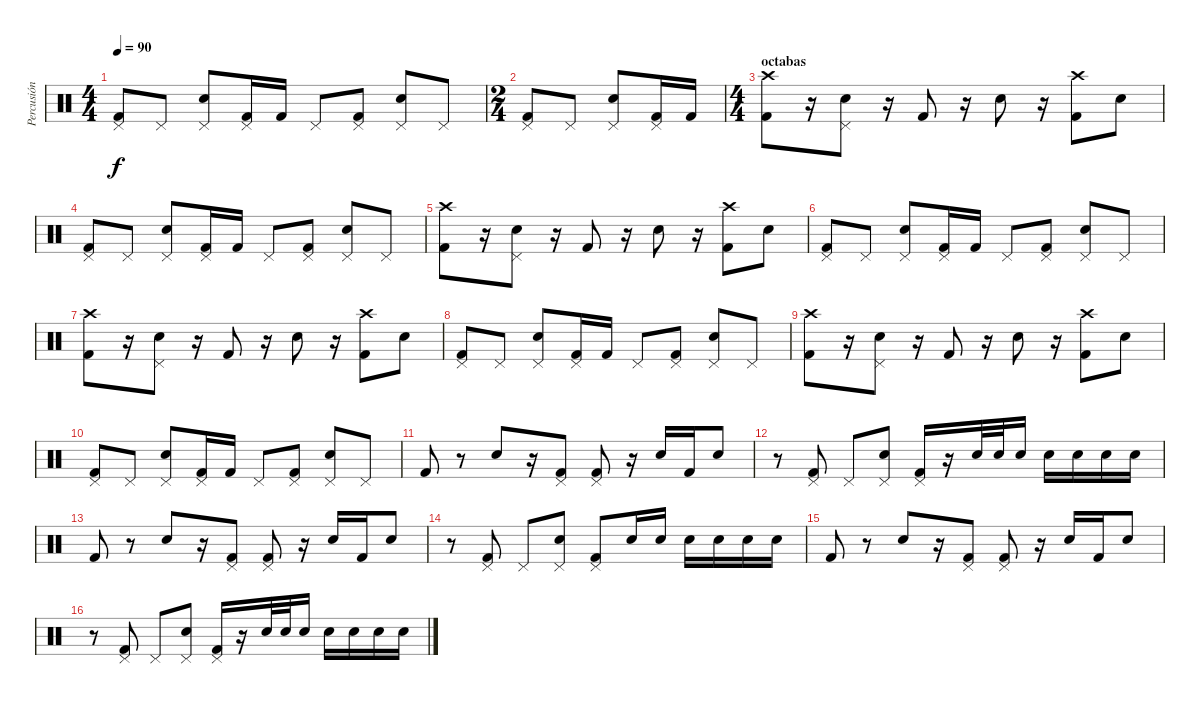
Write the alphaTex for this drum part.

\track ("Percusión" "Percusión") {instrument percussion}
\staff {score}
\articulation defaults
\ts (4 4)
\tempo 90
\clef neutral
\ks c
("Pedal Hi-Hat (hit)" "Kick (hit) 2").8{dy f} "Pedal Hi-Hat (hit)".8 ("Pedal Hi-Hat (hit)" "Electric Snare (hit)").8 ("Pedal Hi-Hat (hit)" "Kick (hit) 2").16 "Kick (hit) 2".16 "Pedal Hi-Hat (hit)".8 ("Pedal Hi-Hat (hit)" "Kick (hit) 2").8 ("Pedal Hi-Hat (hit)" "Electric Snare (hit)").8 "Pedal Hi-Hat (hit)".8 |
\ts (2 4)
("Pedal Hi-Hat (hit)" "Kick (hit) 2").8 "Pedal Hi-Hat (hit)".8 ("Pedal Hi-Hat (hit)" "Electric Snare (hit)").8 ("Pedal Hi-Hat (hit)" "Kick (hit) 2").16 "Kick (hit) 2".16 |
\ts (4 4)
\section ("" "octabas")
("Crash high (hit)" "Kick (hit) 2").8 r.16 ("Pedal Hi-Hat (hit)" "Electric Snare (hit)").8 r.16 "Kick (hit) 2".8 r.16 "Electric Snare (hit)".8 r.16 ("Crash high (hit)" "Kick (hit) 2").8 "Electric Snare (hit)".8 |
("Pedal Hi-Hat (hit)" "Kick (hit) 2").8 "Pedal Hi-Hat (hit)".8 ("Pedal Hi-Hat (hit)" "Electric Snare (hit)").8 ("Pedal Hi-Hat (hit)" "Kick (hit) 2").16 "Kick (hit) 2".16 "Pedal Hi-Hat (hit)".8 ("Pedal Hi-Hat (hit)" "Kick (hit) 2").8 ("Pedal Hi-Hat (hit)" "Electric Snare (hit)").8 "Pedal Hi-Hat (hit)".8 |
("Crash high (hit)" "Kick (hit) 2").8 r.16 ("Pedal Hi-Hat (hit)" "Electric Snare (hit)").8 r.16 "Kick (hit) 2".8 r.16 "Electric Snare (hit)".8 r.16 ("Crash high (hit)" "Kick (hit) 2").8 "Electric Snare (hit)".8 |
("Pedal Hi-Hat (hit)" "Kick (hit) 2").8 "Pedal Hi-Hat (hit)".8 ("Pedal Hi-Hat (hit)" "Electric Snare (hit)").8 ("Pedal Hi-Hat (hit)" "Kick (hit) 2").16 "Kick (hit) 2".16 "Pedal Hi-Hat (hit)".8 ("Pedal Hi-Hat (hit)" "Kick (hit) 2").8 ("Pedal Hi-Hat (hit)" "Electric Snare (hit)").8 "Pedal Hi-Hat (hit)".8 |
("Crash high (hit)" "Kick (hit) 2").8 r.16 ("Pedal Hi-Hat (hit)" "Electric Snare (hit)").8 r.16 "Kick (hit) 2".8 r.16 "Electric Snare (hit)".8 r.16 ("Crash high (hit)" "Kick (hit) 2").8 "Electric Snare (hit)".8 |
("Pedal Hi-Hat (hit)" "Kick (hit) 2").8 "Pedal Hi-Hat (hit)".8 ("Pedal Hi-Hat (hit)" "Electric Snare (hit)").8 ("Pedal Hi-Hat (hit)" "Kick (hit) 2").16 "Kick (hit) 2".16 "Pedal Hi-Hat (hit)".8 ("Pedal Hi-Hat (hit)" "Kick (hit) 2").8 ("Pedal Hi-Hat (hit)" "Electric Snare (hit)").8 "Pedal Hi-Hat (hit)".8 |
("Crash high (hit)" "Kick (hit) 2").8 r.16 ("Pedal Hi-Hat (hit)" "Electric Snare (hit)").8 r.16 "Kick (hit) 2".8 r.16 "Electric Snare (hit)".8 r.16 ("Crash high (hit)" "Kick (hit) 2").8 "Electric Snare (hit)".8 |
("Pedal Hi-Hat (hit)" "Kick (hit) 2").8 "Pedal Hi-Hat (hit)".8 ("Pedal Hi-Hat (hit)" "Electric Snare (hit)").8 ("Pedal Hi-Hat (hit)" "Kick (hit) 2").16 "Kick (hit) 2".16 "Pedal Hi-Hat (hit)".8 ("Pedal Hi-Hat (hit)" "Kick (hit) 2").8 ("Pedal Hi-Hat (hit)" "Electric Snare (hit)").8 "Pedal Hi-Hat (hit)".8 |
"Kick (hit) 2".8 r.8 "Electric Snare (hit)".8 r.16 ("Pedal Hi-Hat (hit)" "Kick (hit) 2").8 ("Pedal Hi-Hat (hit)" "Kick (hit) 2").8 r.16 "Electric Snare (hit)".16 "Kick (hit) 2".16 "Electric Snare (hit)".8 |
r.8 ("Pedal Hi-Hat (hit)" "Kick (hit) 2").8 "Pedal Hi-Hat (hit)".8 ("Pedal Hi-Hat (hit)" "Electric Snare (hit)").8 ("Pedal Hi-Hat (hit)" "Kick (hit) 2").16 r.16 "Electric Snare (hit)".32 "Electric Snare (hit)".32 "Electric Snare (hit)".16 "Electric Snare (hit)".16 "Electric Snare (hit)".16 "Electric Snare (hit)".16 "Electric Snare (hit)".16 |
"Kick (hit) 2".8 r.8 "Electric Snare (hit)".8 r.16 ("Pedal Hi-Hat (hit)" "Kick (hit) 2").8 ("Pedal Hi-Hat (hit)" "Kick (hit) 2").8 r.16 "Electric Snare (hit)".16 "Kick (hit) 2".16 "Electric Snare (hit)".8 |
r.8 ("Pedal Hi-Hat (hit)" "Kick (hit) 2").8 "Pedal Hi-Hat (hit)".8 ("Pedal Hi-Hat (hit)" "Electric Snare (hit)").8 ("Pedal Hi-Hat (hit)" "Kick (hit) 2").8 "Electric Snare (hit)".16 "Electric Snare (hit)".16 "Electric Snare (hit)".16 "Electric Snare (hit)".16 "Electric Snare (hit)".16 "Electric Snare (hit)".16 |
"Kick (hit) 2".8 r.8 "Electric Snare (hit)".8 r.16 ("Pedal Hi-Hat (hit)" "Kick (hit) 2").8 ("Pedal Hi-Hat (hit)" "Kick (hit) 2").8 r.16 "Electric Snare (hit)".16 "Kick (hit) 2".16 "Electric Snare (hit)".8 |
r.8 ("Pedal Hi-Hat (hit)" "Kick (hit) 2").8 "Pedal Hi-Hat (hit)".8 ("Pedal Hi-Hat (hit)" "Electric Snare (hit)").8 ("Pedal Hi-Hat (hit)" "Kick (hit) 2").16 r.16 "Electric Snare (hit)".32 "Electric Snare (hit)".32 "Electric Snare (hit)".16 "Electric Snare (hit)".16 "Electric Snare (hit)".16 "Electric Snare (hit)".16 "Electric Snare (hit)".16
